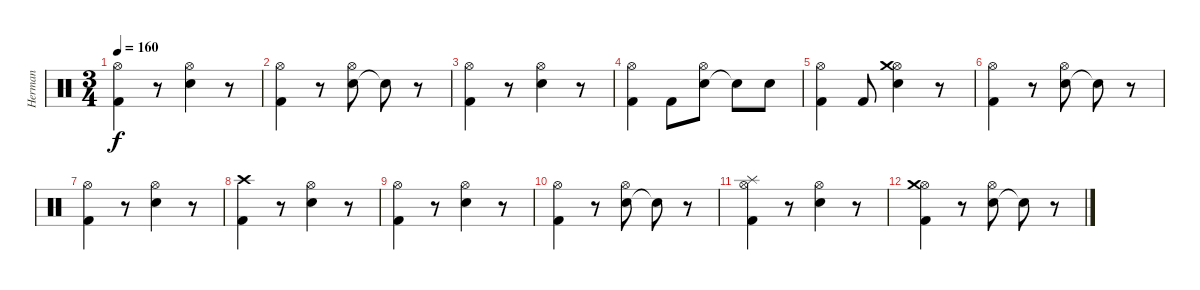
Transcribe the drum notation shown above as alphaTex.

\track ("Herman" "Herman") {instrument percussion}
\staff {score}
\articulation defaults
\ts (3 4)
\tempo 160
\clef neutral
\ks c
("Kick (hit) 2" "Hi-Hat (open)").4{dy f} r.8 ("Electric Snare (hit)" "Hi-Hat (open)").4 r.8 |
("Kick (hit) 2" "Hi-Hat (open)").4 r.8 ("Electric Snare (hit)" "Hi-Hat (open)").8 "Snare (hit)"{t}.8 r.8 |
("Kick (hit) 2" "Hi-Hat (open)").4 r.8 ("Electric Snare (hit)" "Hi-Hat (open)").4 r.8 |
("Kick (hit) 2" "Hi-Hat (open)").4 "Kick (hit) 2".8 ("Electric Snare (hit)" "Hi-Hat (open)").8 "Snare (hit)"{t}.8 "Electric Snare (hit)".8 |
("Kick (hit) 2" "Hi-Hat (open)").4 "Kick (hit) 2".8 ("Electric Snare (hit)" "Hi-Hat (open)" "Crash medium (hit)").4 r.8 |
("Kick (hit) 2" "Hi-Hat (open)").4 r.8 ("Electric Snare (hit)" "Hi-Hat (open)").8 "Snare (hit)"{t}.8 r.8 |
("Kick (hit) 2" "Hi-Hat (open)").4 r.8 ("Electric Snare (hit)" "Hi-Hat (open)").4 r.8 |
("Kick (hit) 2" "Crash high (hit)").4 r.8 ("Electric Snare (hit)" "Hi-Hat (open)").4 r.8 |
("Kick (hit) 2" "Hi-Hat (open)").4 r.8 ("Electric Snare (hit)" "Hi-Hat (open)").4 r.8 |
("Kick (hit) 2" "Hi-Hat (open)").4 r.8 ("Electric Snare (hit)" "Hi-Hat (open)").8 "Snare (hit)"{t}.8 r.8 |
("Kick (hit) 2" "Hi-Hat (open)" "Splash (hit)").4 r.8 ("Electric Snare (hit)" "Hi-Hat (open)").4 r.8 |
("Kick (hit) 2" "Hi-Hat (open)" "Crash medium (hit)").4 r.8 ("Electric Snare (hit)" "Hi-Hat (open)").8 "Snare (hit)"{t}.8 r.8
